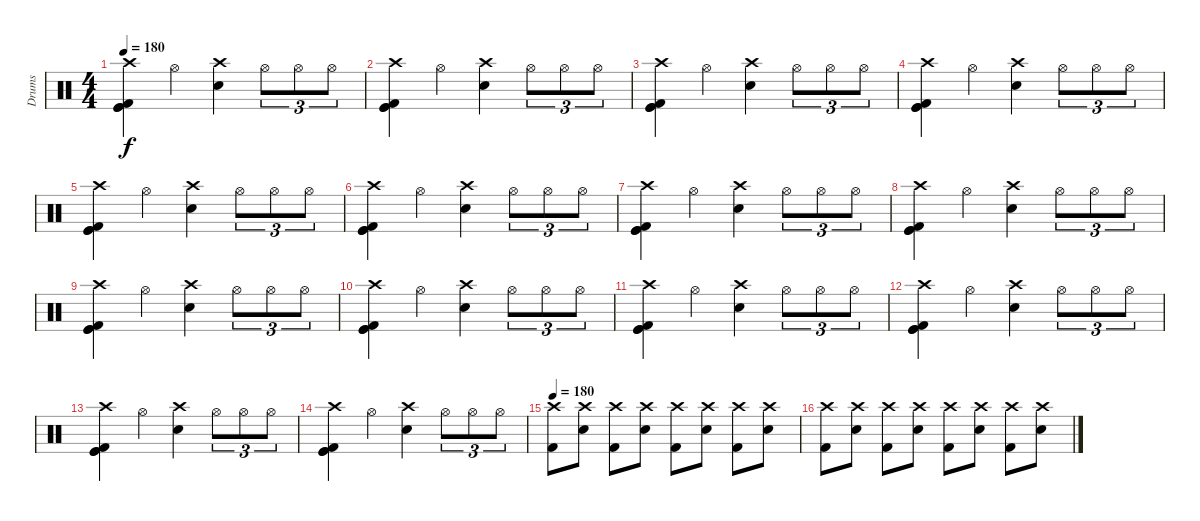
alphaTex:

\track ("Drums" "Drums") {instrument percussion}
\staff {score}
\articulation defaults
\ts (4 4)
\tempo 180
\clef neutral
\ks c
("Crash high (hit)" "Kick (hit)" "Kick (hit)" "Kick (hit) 2").4{dy f} "Hi-Hat (open)".4 ("Crash high (hit)" "Snare (hit) 2").4 "Hi-Hat (open)".8{tu (3 2)} "Hi-Hat (open)".8{tu (3 2)} "Hi-Hat (open)".8{tu (3 2)} |
("Crash high (hit)" "Kick (hit)" "Kick (hit)" "Kick (hit) 2").4 "Hi-Hat (open)".4 ("Crash high (hit)" "Snare (hit) 2").4 "Hi-Hat (open)".8{tu (3 2)} "Hi-Hat (open)".8{tu (3 2)} "Hi-Hat (open)".8{tu (3 2)} |
("Crash high (hit)" "Kick (hit)" "Kick (hit)" "Kick (hit) 2").4 "Hi-Hat (open)".4 ("Crash high (hit)" "Snare (hit) 2").4 "Hi-Hat (open)".8{tu (3 2)} "Hi-Hat (open)".8{tu (3 2)} "Hi-Hat (open)".8{tu (3 2)} |
("Crash high (hit)" "Kick (hit)" "Kick (hit)" "Kick (hit) 2").4 "Hi-Hat (open)".4 ("Crash high (hit)" "Snare (hit) 2").4 "Hi-Hat (open)".8{tu (3 2)} "Hi-Hat (open)".8{tu (3 2)} "Hi-Hat (open)".8{tu (3 2)} |
("Crash high (hit)" "Kick (hit)" "Kick (hit)" "Kick (hit) 2").4 "Hi-Hat (open)".4 ("Crash high (hit)" "Snare (hit) 2").4 "Hi-Hat (open)".8{tu (3 2)} "Hi-Hat (open)".8{tu (3 2)} "Hi-Hat (open)".8{tu (3 2)} |
("Crash high (hit)" "Kick (hit)" "Kick (hit)" "Kick (hit) 2").4 "Hi-Hat (open)".4 ("Crash high (hit)" "Snare (hit) 2").4 "Hi-Hat (open)".8{tu (3 2)} "Hi-Hat (open)".8{tu (3 2)} "Hi-Hat (open)".8{tu (3 2)} |
("Crash high (hit)" "Kick (hit)" "Kick (hit)" "Kick (hit) 2").4 "Hi-Hat (open)".4 ("Crash high (hit)" "Snare (hit) 2").4 "Hi-Hat (open)".8{tu (3 2)} "Hi-Hat (open)".8{tu (3 2)} "Hi-Hat (open)".8{tu (3 2)} |
("Crash high (hit)" "Kick (hit)" "Kick (hit)" "Kick (hit) 2").4 "Hi-Hat (open)".4 ("Crash high (hit)" "Snare (hit) 2").4 "Hi-Hat (open)".8{tu (3 2)} "Hi-Hat (open)".8{tu (3 2)} "Hi-Hat (open)".8{tu (3 2)} |
("Crash high (hit)" "Kick (hit)" "Kick (hit)" "Kick (hit) 2").4 "Hi-Hat (open)".4 ("Crash high (hit)" "Snare (hit) 2").4 "Hi-Hat (open)".8{tu (3 2)} "Hi-Hat (open)".8{tu (3 2)} "Hi-Hat (open)".8{tu (3 2)} |
("Crash high (hit)" "Kick (hit)" "Kick (hit)" "Kick (hit) 2").4 "Hi-Hat (open)".4 ("Crash high (hit)" "Snare (hit) 2").4 "Hi-Hat (open)".8{tu (3 2)} "Hi-Hat (open)".8{tu (3 2)} "Hi-Hat (open)".8{tu (3 2)} |
("Crash high (hit)" "Kick (hit)" "Kick (hit)" "Kick (hit) 2").4 "Hi-Hat (open)".4 ("Crash high (hit)" "Snare (hit) 2").4 "Hi-Hat (open)".8{tu (3 2)} "Hi-Hat (open)".8{tu (3 2)} "Hi-Hat (open)".8{tu (3 2)} |
("Crash high (hit)" "Kick (hit)" "Kick (hit)" "Kick (hit) 2").4 "Hi-Hat (open)".4 ("Crash high (hit)" "Snare (hit) 2").4 "Hi-Hat (open)".8{tu (3 2)} "Hi-Hat (open)".8{tu (3 2)} "Hi-Hat (open)".8{tu (3 2)} |
("Crash high (hit)" "Kick (hit)" "Kick (hit)" "Kick (hit) 2").4 "Hi-Hat (open)".4 ("Crash high (hit)" "Snare (hit) 2").4 "Hi-Hat (open)".8{tu (3 2)} "Hi-Hat (open)".8{tu (3 2)} "Hi-Hat (open)".8{tu (3 2)} |
("Crash high (hit)" "Kick (hit)" "Kick (hit)" "Kick (hit) 2").4 "Hi-Hat (open)".4 ("Crash high (hit)" "Snare (hit) 2").4 "Hi-Hat (open)".8{tu (3 2)} "Hi-Hat (open)".8{tu (3 2)} "Hi-Hat (open)".8{tu (3 2)} |
\tempo 180
("Crash high (hit)" "Kick (hit) 2").8 ("Crash high (hit)" "Snare (hit) 2").8 ("Crash high (hit)" "Kick (hit) 2").8 ("Crash high (hit)" "Snare (hit) 2").8 ("Crash high (hit)" "Kick (hit) 2").8 ("Crash high (hit)" "Snare (hit) 2").8 ("Crash high (hit)" "Kick (hit) 2").8 ("Crash high (hit)" "Snare (hit) 2").8 |
("Crash high (hit)" "Kick (hit) 2").8 ("Crash high (hit)" "Snare (hit) 2").8 ("Crash high (hit)" "Kick (hit) 2").8 ("Crash high (hit)" "Snare (hit) 2").8 ("Crash high (hit)" "Kick (hit) 2").8 ("Crash high (hit)" "Snare (hit) 2").8 ("Crash high (hit)" "Kick (hit) 2").8 ("Crash high (hit)" "Snare (hit) 2").8
